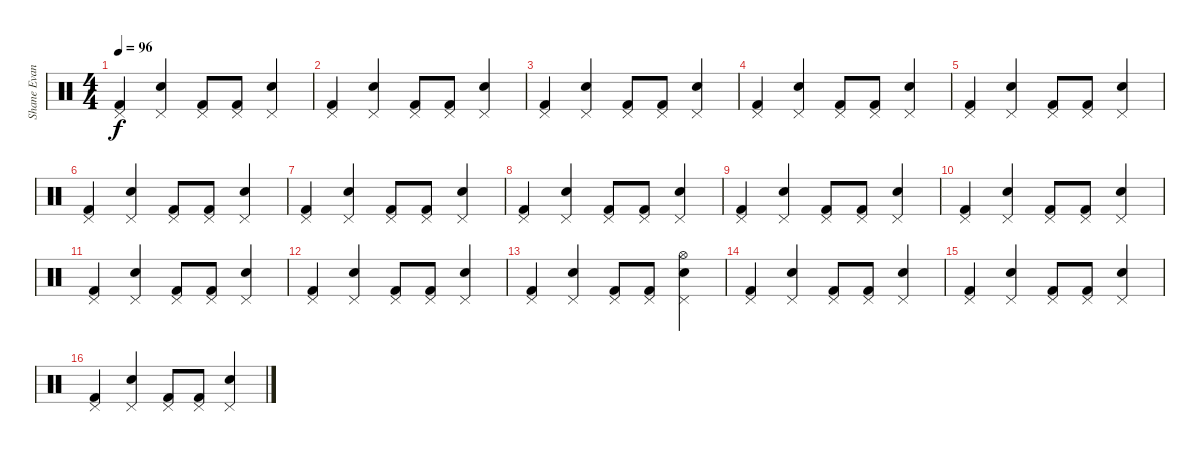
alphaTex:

\track ("Shane Evans" "Shane Evan") {instrument percussion}
\staff {score}
\articulation defaults
\ts (4 4)
\tempo 96
\clef neutral
\ks c
("Pedal Hi-Hat (hit)" "Kick (hit) 2").4{dy f} ("Pedal Hi-Hat (hit)" "Snare (hit) 2").4 ("Pedal Hi-Hat (hit)" "Kick (hit) 2").8 ("Pedal Hi-Hat (hit)" "Kick (hit) 2").8 ("Pedal Hi-Hat (hit)" "Snare (hit) 2").4 |
("Pedal Hi-Hat (hit)" "Kick (hit) 2").4 ("Pedal Hi-Hat (hit)" "Snare (hit) 2").4 ("Pedal Hi-Hat (hit)" "Kick (hit) 2").8 ("Pedal Hi-Hat (hit)" "Kick (hit) 2").8 ("Pedal Hi-Hat (hit)" "Snare (hit) 2").4 |
("Pedal Hi-Hat (hit)" "Kick (hit) 2").4 ("Pedal Hi-Hat (hit)" "Snare (hit) 2").4 ("Pedal Hi-Hat (hit)" "Kick (hit) 2").8 ("Pedal Hi-Hat (hit)" "Kick (hit) 2").8 ("Pedal Hi-Hat (hit)" "Snare (hit) 2").4 |
("Pedal Hi-Hat (hit)" "Kick (hit) 2").4 ("Pedal Hi-Hat (hit)" "Snare (hit) 2").4 ("Pedal Hi-Hat (hit)" "Kick (hit) 2").8 ("Pedal Hi-Hat (hit)" "Kick (hit) 2").8 ("Pedal Hi-Hat (hit)" "Snare (hit) 2").4 |
("Pedal Hi-Hat (hit)" "Kick (hit) 2").4 ("Pedal Hi-Hat (hit)" "Snare (hit) 2").4 ("Pedal Hi-Hat (hit)" "Kick (hit) 2").8 ("Pedal Hi-Hat (hit)" "Kick (hit) 2").8 ("Pedal Hi-Hat (hit)" "Snare (hit) 2").4 |
("Pedal Hi-Hat (hit)" "Kick (hit) 2").4 ("Pedal Hi-Hat (hit)" "Snare (hit) 2").4 ("Pedal Hi-Hat (hit)" "Kick (hit) 2").8 ("Pedal Hi-Hat (hit)" "Kick (hit) 2").8 ("Pedal Hi-Hat (hit)" "Snare (hit) 2").4 |
("Pedal Hi-Hat (hit)" "Kick (hit) 2").4 ("Pedal Hi-Hat (hit)" "Snare (hit) 2").4 ("Pedal Hi-Hat (hit)" "Kick (hit) 2").8 ("Pedal Hi-Hat (hit)" "Kick (hit) 2").8 ("Pedal Hi-Hat (hit)" "Snare (hit) 2").4 |
("Pedal Hi-Hat (hit)" "Kick (hit) 2").4 ("Pedal Hi-Hat (hit)" "Snare (hit) 2").4 ("Pedal Hi-Hat (hit)" "Kick (hit) 2").8 ("Pedal Hi-Hat (hit)" "Kick (hit) 2").8 ("Pedal Hi-Hat (hit)" "Snare (hit) 2").4 |
("Pedal Hi-Hat (hit)" "Kick (hit) 2").4 ("Pedal Hi-Hat (hit)" "Snare (hit) 2").4 ("Pedal Hi-Hat (hit)" "Kick (hit) 2").8 ("Pedal Hi-Hat (hit)" "Kick (hit) 2").8 ("Pedal Hi-Hat (hit)" "Snare (hit) 2").4 |
("Pedal Hi-Hat (hit)" "Kick (hit) 2").4 ("Pedal Hi-Hat (hit)" "Snare (hit) 2").4 ("Pedal Hi-Hat (hit)" "Kick (hit) 2").8 ("Pedal Hi-Hat (hit)" "Kick (hit) 2").8 ("Pedal Hi-Hat (hit)" "Snare (hit) 2").4 |
("Pedal Hi-Hat (hit)" "Kick (hit) 2").4 ("Pedal Hi-Hat (hit)" "Snare (hit) 2").4 ("Pedal Hi-Hat (hit)" "Kick (hit) 2").8 ("Pedal Hi-Hat (hit)" "Kick (hit) 2").8 ("Pedal Hi-Hat (hit)" "Snare (hit) 2").4 |
("Pedal Hi-Hat (hit)" "Kick (hit) 2").4 ("Pedal Hi-Hat (hit)" "Snare (hit) 2").4 ("Pedal Hi-Hat (hit)" "Kick (hit) 2").8 ("Pedal Hi-Hat (hit)" "Kick (hit) 2").8 ("Pedal Hi-Hat (hit)" "Snare (hit) 2").4 |
("Pedal Hi-Hat (hit)" "Kick (hit) 2").4 ("Pedal Hi-Hat (hit)" "Snare (hit) 2").4 ("Pedal Hi-Hat (hit)" "Kick (hit) 2").8 ("Pedal Hi-Hat (hit)" "Kick (hit) 2").8 ("Hi-Hat (open)" "Pedal Hi-Hat (hit)" "Snare (hit) 2").4 |
("Pedal Hi-Hat (hit)" "Kick (hit) 2").4 ("Pedal Hi-Hat (hit)" "Snare (hit) 2").4 ("Pedal Hi-Hat (hit)" "Kick (hit) 2").8 ("Pedal Hi-Hat (hit)" "Kick (hit) 2").8 ("Pedal Hi-Hat (hit)" "Snare (hit) 2").4 |
("Pedal Hi-Hat (hit)" "Kick (hit) 2").4 ("Pedal Hi-Hat (hit)" "Snare (hit) 2").4 ("Pedal Hi-Hat (hit)" "Kick (hit) 2").8 ("Pedal Hi-Hat (hit)" "Kick (hit) 2").8 ("Pedal Hi-Hat (hit)" "Snare (hit) 2").4 |
("Pedal Hi-Hat (hit)" "Kick (hit) 2").4 ("Pedal Hi-Hat (hit)" "Snare (hit) 2").4 ("Pedal Hi-Hat (hit)" "Kick (hit) 2").8 ("Pedal Hi-Hat (hit)" "Kick (hit) 2").8 ("Pedal Hi-Hat (hit)" "Snare (hit) 2").4
